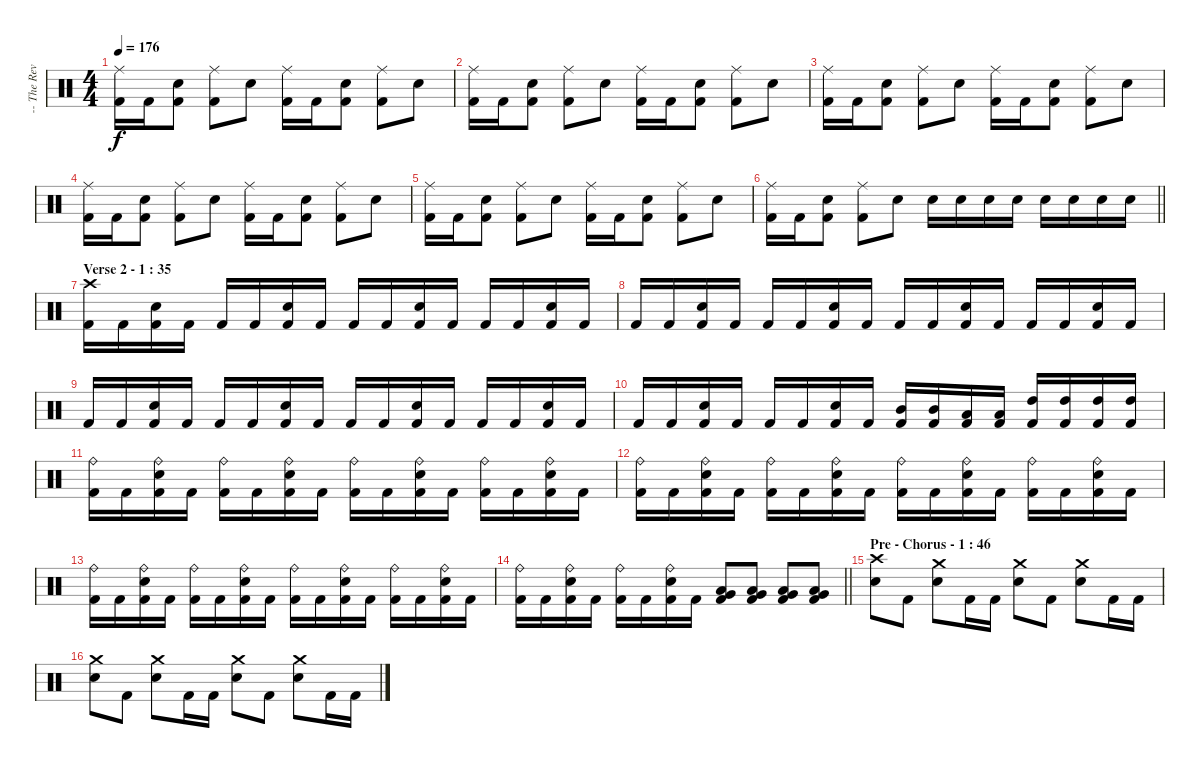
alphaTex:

\track ("-- The Reverend - Drums" "-- The Rev") {instrument percussion}
\staff {score}
\articulation defaults
\ts (4 4)
\tempo 176
\clef neutral
\ks c
("Ride (middle)" "Kick (hit) 2").16{dy f} "Kick (hit) 2".16 ("Electric Snare (hit)" "Kick (hit) 2").8 ("Ride (middle)" "Kick (hit) 2").8 "Electric Snare (hit)".8 ("Ride (middle)" "Kick (hit) 2").16 "Kick (hit) 2".16 ("Electric Snare (hit)" "Kick (hit) 2").8 ("Ride (middle)" "Kick (hit) 2").8 "Electric Snare (hit)".8 |
("Ride (middle)" "Kick (hit) 2").16 "Kick (hit) 2".16 ("Electric Snare (hit)" "Kick (hit) 2").8 ("Ride (middle)" "Kick (hit) 2").8 "Electric Snare (hit)".8 ("Ride (middle)" "Kick (hit) 2").16 "Kick (hit) 2".16 ("Electric Snare (hit)" "Kick (hit) 2").8 ("Ride (middle)" "Kick (hit) 2").8 "Electric Snare (hit)".8 |
("Ride (middle)" "Kick (hit) 2").16 "Kick (hit) 2".16 ("Electric Snare (hit)" "Kick (hit) 2").8 ("Ride (middle)" "Kick (hit) 2").8 "Electric Snare (hit)".8 ("Ride (middle)" "Kick (hit) 2").16 "Kick (hit) 2".16 ("Electric Snare (hit)" "Kick (hit) 2").8 ("Ride (middle)" "Kick (hit) 2").8 "Electric Snare (hit)".8 |
("Ride (middle)" "Kick (hit) 2").16 "Kick (hit) 2".16 ("Electric Snare (hit)" "Kick (hit) 2").8 ("Ride (middle)" "Kick (hit) 2").8 "Electric Snare (hit)".8 ("Ride (middle)" "Kick (hit) 2").16 "Kick (hit) 2".16 ("Electric Snare (hit)" "Kick (hit) 2").8 ("Ride (middle)" "Kick (hit) 2").8 "Electric Snare (hit)".8 |
("Ride (middle)" "Kick (hit) 2").16 "Kick (hit) 2".16 ("Electric Snare (hit)" "Kick (hit) 2").8 ("Ride (middle)" "Kick (hit) 2").8 "Electric Snare (hit)".8 ("Ride (middle)" "Kick (hit) 2").16 "Kick (hit) 2".16 ("Electric Snare (hit)" "Kick (hit) 2").8 ("Ride (middle)" "Kick (hit) 2").8 "Electric Snare (hit)".8 |
\barLineRight lightlight
("Ride (middle)" "Kick (hit) 2").16 "Kick (hit) 2".16 ("Electric Snare (hit)" "Kick (hit) 2").8 ("Ride (middle)" "Kick (hit) 2").8 "Electric Snare (hit)".8 "Electric Snare (hit)".16 "Electric Snare (hit)".16 "Electric Snare (hit)".16 "Electric Snare (hit)".16 "Electric Snare (hit)".16 "Electric Snare (hit)".16 "Electric Snare (hit)".16 "Electric Snare (hit)".16 |
\section ("" "Verse 2 - 1 : 35")
("Crash high (hit)" "Kick (hit) 2").16 "Kick (hit) 2".16 ("Electric Snare (hit)" "Kick (hit) 2").16 "Kick (hit) 2".16 "Kick (hit) 2".16 "Kick (hit) 2".16 ("Electric Snare (hit)" "Kick (hit) 2").16 "Kick (hit) 2".16 "Kick (hit) 2".16 "Kick (hit) 2".16 ("Electric Snare (hit)" "Kick (hit) 2").16 "Kick (hit) 2".16 "Kick (hit) 2".16 "Kick (hit) 2".16 ("Electric Snare (hit)" "Kick (hit) 2").16 "Kick (hit) 2".16 |
"Kick (hit) 2".16 "Kick (hit) 2".16 ("Electric Snare (hit)" "Kick (hit) 2").16 "Kick (hit) 2".16 "Kick (hit) 2".16 "Kick (hit) 2".16 ("Electric Snare (hit)" "Kick (hit) 2").16 "Kick (hit) 2".16 "Kick (hit) 2".16 "Kick (hit) 2".16 ("Electric Snare (hit)" "Kick (hit) 2").16 "Kick (hit) 2".16 "Kick (hit) 2".16 "Kick (hit) 2".16 ("Electric Snare (hit)" "Kick (hit) 2").16 "Kick (hit) 2".16 |
"Kick (hit) 2".16 "Kick (hit) 2".16 ("Electric Snare (hit)" "Kick (hit) 2").16 "Kick (hit) 2".16 "Kick (hit) 2".16 "Kick (hit) 2".16 ("Electric Snare (hit)" "Kick (hit) 2").16 "Kick (hit) 2".16 "Kick (hit) 2".16 "Kick (hit) 2".16 ("Electric Snare (hit)" "Kick (hit) 2").16 "Kick (hit) 2".16 "Kick (hit) 2".16 "Kick (hit) 2".16 ("Electric Snare (hit)" "Kick (hit) 2").16 "Kick (hit) 2".16 |
"Kick (hit) 2".16 "Kick (hit) 2".16 ("Electric Snare (hit)" "Kick (hit) 2").16 "Kick (hit) 2".16 "Kick (hit) 2".16 "Kick (hit) 2".16 ("Electric Snare (hit)" "Kick (hit) 2").16 "Kick (hit) 2".16 ("Mid Tom (hit)" "Kick (hit) 2").16 ("Mid Tom (hit)" "Kick (hit) 2").16 ("Low Tom (hit)" "Kick (hit) 2").16 ("Low Tom (hit)" "Kick (hit) 2").16 ("High Tom (hit)" "Kick (hit) 2").16 ("High Tom (hit)" "Kick (hit) 2").16 ("High Tom (hit)" "Kick (hit) 2").16 ("High Tom (hit)" "Kick (hit) 2").16 |
("Ride (bell)" "Kick (hit) 2").16 "Kick (hit) 2".16 ("Ride (bell)" "Electric Snare (hit)" "Kick (hit) 2").16 "Kick (hit) 2".16 ("Ride (bell)" "Kick (hit) 2").16 "Kick (hit) 2".16 ("Ride (bell)" "Electric Snare (hit)" "Kick (hit) 2").16 "Kick (hit) 2".16 ("Ride (bell)" "Kick (hit) 2").16 "Kick (hit) 2".16 ("Ride (bell)" "Electric Snare (hit)" "Kick (hit) 2").16 "Kick (hit) 2".16 ("Ride (bell)" "Kick (hit) 2").16 "Kick (hit) 2".16 ("Ride (bell)" "Electric Snare (hit)" "Kick (hit) 2").16 "Kick (hit) 2".16 |
("Ride (bell)" "Kick (hit) 2").16 "Kick (hit) 2".16 ("Ride (bell)" "Electric Snare (hit)" "Kick (hit) 2").16 "Kick (hit) 2".16 ("Ride (bell)" "Kick (hit) 2").16 "Kick (hit) 2".16 ("Ride (bell)" "Electric Snare (hit)" "Kick (hit) 2").16 "Kick (hit) 2".16 ("Ride (bell)" "Kick (hit) 2").16 "Kick (hit) 2".16 ("Ride (bell)" "Electric Snare (hit)" "Kick (hit) 2").16 "Kick (hit) 2".16 ("Ride (bell)" "Kick (hit) 2").16 "Kick (hit) 2".16 ("Ride (bell)" "Electric Snare (hit)" "Kick (hit) 2").16 "Kick (hit) 2".16 |
("Ride (bell)" "Kick (hit) 2").16 "Kick (hit) 2".16 ("Ride (bell)" "Electric Snare (hit)" "Kick (hit) 2").16 "Kick (hit) 2".16 ("Ride (bell)" "Kick (hit) 2").16 "Kick (hit) 2".16 ("Ride (bell)" "Electric Snare (hit)" "Kick (hit) 2").16 "Kick (hit) 2".16 ("Ride (bell)" "Kick (hit) 2").16 "Kick (hit) 2".16 ("Ride (bell)" "Electric Snare (hit)" "Kick (hit) 2").16 "Kick (hit) 2".16 ("Ride (bell)" "Kick (hit) 2").16 "Kick (hit) 2".16 ("Ride (bell)" "Electric Snare (hit)" "Kick (hit) 2").16 "Kick (hit) 2".16 |
\barLineRight lightlight
("Ride (bell)" "Kick (hit) 2").16 "Kick (hit) 2".16 ("Ride (bell)" "Electric Snare (hit)" "Kick (hit) 2").16 "Kick (hit) 2".16 ("Ride (bell)" "Kick (hit) 2").16 "Kick (hit) 2".16 ("Ride (bell)" "Electric Snare (hit)" "Kick (hit) 2").16 "Kick (hit) 2".16 ("Very Low Tom (hit)" "Low Floor Tom (hit)" "Kick (hit) 2").8 ("Very Low Tom (hit)" "Low Floor Tom (hit)" "Kick (hit) 2").8 ("Very Low Tom (hit)" "Low Floor Tom (hit)" "Kick (hit) 2").8 ("Very Low Tom (hit)" "Low Floor Tom (hit)" "Kick (hit) 2").8 |
\section ("" "Pre - Chorus - 1 : 46")
("Crash high (hit)" "Electric Snare (hit)").8 "Kick (hit) 2".8 ("Crash medium (hit)" "Electric Snare (hit)").8 "Kick (hit) 2".16 "Kick (hit) 2".16 ("Crash medium (hit)" "Electric Snare (hit)").8 "Kick (hit) 2".8 ("Crash medium (hit)" "Electric Snare (hit)").8 "Kick (hit) 2".16 "Kick (hit) 2".16 |
("Crash medium (hit)" "Electric Snare (hit)").8 "Kick (hit) 2".8 ("Crash medium (hit)" "Electric Snare (hit)").8 "Kick (hit) 2".16 "Kick (hit) 2".16 ("Crash medium (hit)" "Electric Snare (hit)").8 "Kick (hit) 2".8 ("Crash medium (hit)" "Electric Snare (hit)").8 "Kick (hit) 2".16 "Kick (hit) 2".16
